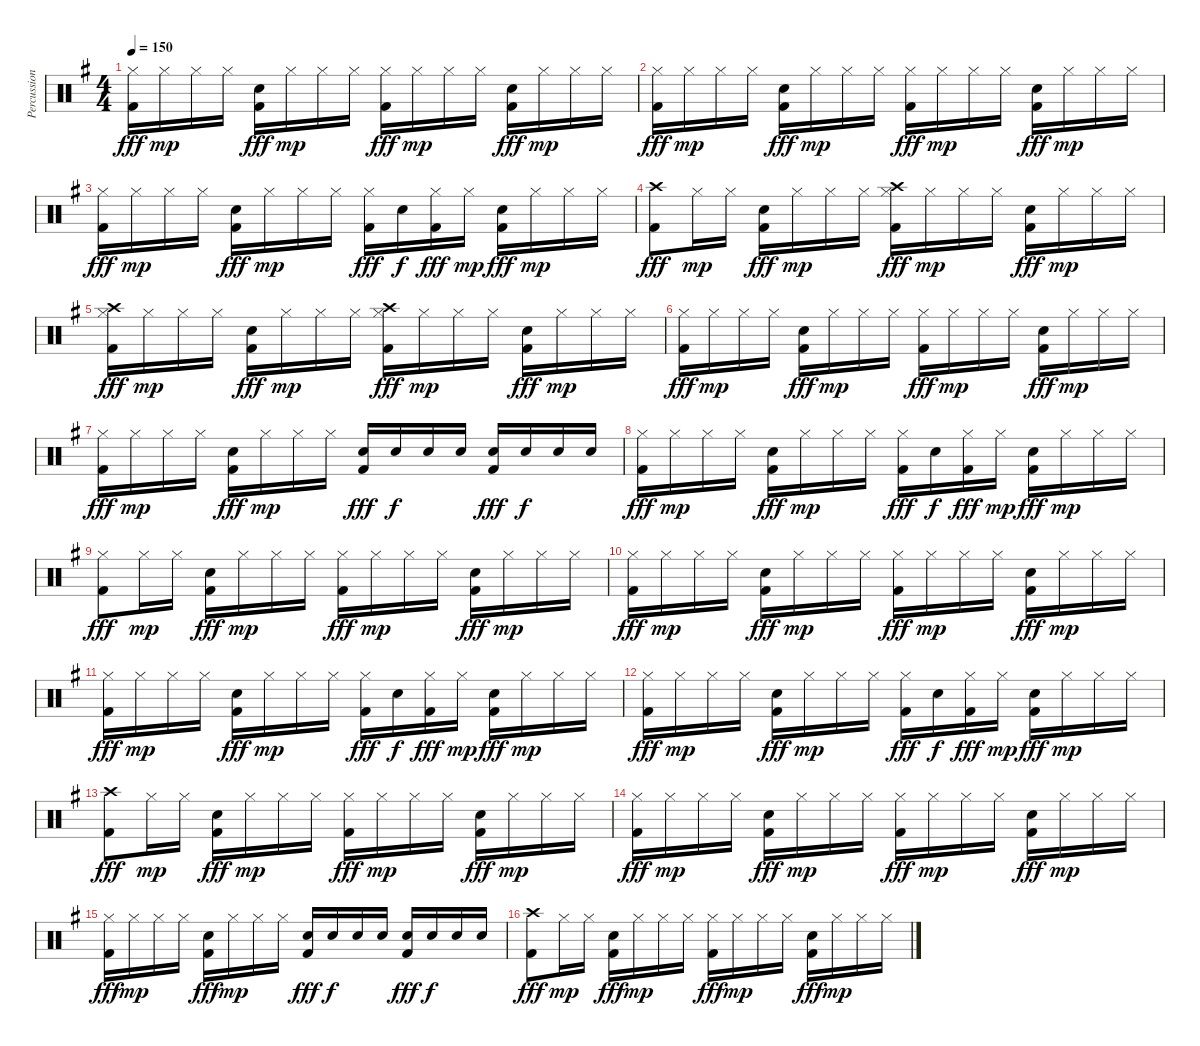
\track ("Percussion" "Percussion") {instrument percussion}
\staff {score}
\articulation defaults
\ts (4 4)
\tempo 150
\clef neutral
\ks eminor
("Hi-Hat (closed)" "Kick (hit) 2").16{dy fff} "Hi-Hat (closed)".16{dy mp} "Hi-Hat (closed)".16 "Hi-Hat (closed)".16 ("Electric Snare (hit)" "Kick (hit) 2").16{dy fff} "Hi-Hat (closed)".16{dy mp} "Hi-Hat (closed)".16 "Hi-Hat (closed)".16 ("Hi-Hat (closed)" "Kick (hit) 2").16{dy fff} "Hi-Hat (closed)".16{dy mp} "Hi-Hat (closed)".16 "Hi-Hat (closed)".16 ("Electric Snare (hit)" "Kick (hit) 2").16{dy fff} "Hi-Hat (closed)".16{dy mp} "Hi-Hat (closed)".16 "Hi-Hat (closed)".16 |
("Hi-Hat (closed)" "Kick (hit) 2").16{dy fff} "Hi-Hat (closed)".16{dy mp} "Hi-Hat (closed)".16 "Hi-Hat (closed)".16 ("Electric Snare (hit)" "Kick (hit) 2").16{dy fff} "Hi-Hat (closed)".16{dy mp} "Hi-Hat (closed)".16 "Hi-Hat (closed)".16 ("Hi-Hat (closed)" "Kick (hit) 2").16{dy fff} "Hi-Hat (closed)".16{dy mp} "Hi-Hat (closed)".16 "Hi-Hat (closed)".16 ("Electric Snare (hit)" "Kick (hit) 2").16{dy fff} "Hi-Hat (closed)".16{dy mp} "Hi-Hat (closed)".16 "Hi-Hat (closed)".16 |
("Hi-Hat (closed)" "Kick (hit) 2").16{dy fff} "Hi-Hat (closed)".16{dy mp} "Hi-Hat (closed)".16 "Hi-Hat (closed)".16 ("Electric Snare (hit)" "Kick (hit) 2").16{dy fff} "Hi-Hat (closed)".16{dy mp} "Hi-Hat (closed)".16 "Hi-Hat (closed)".16 ("Hi-Hat (closed)" "Kick (hit) 2").16{dy fff} "Electric Snare (hit)".16{dy f} ("Hi-Hat (closed)" "Kick (hit) 2").16{dy fff} "Hi-Hat (closed)".16{dy mp} ("Electric Snare (hit)" "Kick (hit) 2").16{dy fff} "Hi-Hat (closed)".16{dy mp} "Hi-Hat (closed)".16 "Hi-Hat (closed)".16 |
("Crash high (hit)" "Kick (hit) 2").8{dy fff} "Hi-Hat (closed)".16{dy mp} "Hi-Hat (closed)".16 ("Electric Snare (hit)" "Kick (hit) 2").16{dy fff} "Hi-Hat (closed)".16{dy mp} "Hi-Hat (closed)".16 "Hi-Hat (closed)".16 ("Hi-Hat (closed)" "Crash high (hit)" "Kick (hit) 2").16{dy fff} "Hi-Hat (closed)".16{dy mp} "Hi-Hat (closed)".16 "Hi-Hat (closed)".16 ("Electric Snare (hit)" "Kick (hit) 2").16{dy fff} "Hi-Hat (closed)".16{dy mp} "Hi-Hat (closed)".16 "Hi-Hat (closed)".16 |
("Hi-Hat (closed)" "Crash high (hit)" "Kick (hit) 2").16{dy fff} "Hi-Hat (closed)".16{dy mp} "Hi-Hat (closed)".16 "Hi-Hat (closed)".16 ("Electric Snare (hit)" "Kick (hit) 2").16{dy fff} "Hi-Hat (closed)".16{dy mp} "Hi-Hat (closed)".16 "Hi-Hat (closed)".16 ("Hi-Hat (closed)" "Crash high (hit)" "Kick (hit) 2").16{dy fff} "Hi-Hat (closed)".16{dy mp} "Hi-Hat (closed)".16 "Hi-Hat (closed)".16 ("Electric Snare (hit)" "Kick (hit) 2").16{dy fff} "Hi-Hat (closed)".16{dy mp} "Hi-Hat (closed)".16 "Hi-Hat (closed)".16 |
("Hi-Hat (closed)" "Kick (hit) 2").16{dy fff} "Hi-Hat (closed)".16{dy mp} "Hi-Hat (closed)".16 "Hi-Hat (closed)".16 ("Electric Snare (hit)" "Kick (hit) 2").16{dy fff} "Hi-Hat (closed)".16{dy mp} "Hi-Hat (closed)".16 "Hi-Hat (closed)".16 ("Hi-Hat (closed)" "Kick (hit) 2").16{dy fff} "Hi-Hat (closed)".16{dy mp} "Hi-Hat (closed)".16 "Hi-Hat (closed)".16 ("Electric Snare (hit)" "Kick (hit) 2").16{dy fff} "Hi-Hat (closed)".16{dy mp} "Hi-Hat (closed)".16 "Hi-Hat (closed)".16 |
("Hi-Hat (closed)" "Kick (hit) 2").16{dy fff} "Hi-Hat (closed)".16{dy mp} "Hi-Hat (closed)".16 "Hi-Hat (closed)".16 ("Electric Snare (hit)" "Kick (hit) 2").16{dy fff} "Hi-Hat (closed)".16{dy mp} "Hi-Hat (closed)".16 "Hi-Hat (closed)".16 ("Electric Snare (hit)" "Kick (hit) 2").16{dy fff} "Electric Snare (hit)".16{dy f} "Electric Snare (hit)".16 "Electric Snare (hit)".16 ("Electric Snare (hit)" "Kick (hit) 2").16{dy fff} "Electric Snare (hit)".16{dy f} "Electric Snare (hit)".16 "Electric Snare (hit)".16 |
("Hi-Hat (closed)" "Kick (hit) 2").16{dy fff} "Hi-Hat (closed)".16{dy mp} "Hi-Hat (closed)".16 "Hi-Hat (closed)".16 ("Electric Snare (hit)" "Kick (hit) 2").16{dy fff} "Hi-Hat (closed)".16{dy mp} "Hi-Hat (closed)".16 "Hi-Hat (closed)".16 ("Hi-Hat (closed)" "Kick (hit) 2").16{dy fff} "Electric Snare (hit)".16{dy f} ("Hi-Hat (closed)" "Kick (hit) 2").16{dy fff} "Hi-Hat (closed)".16{dy mp} ("Electric Snare (hit)" "Kick (hit) 2").16{dy fff} "Hi-Hat (closed)".16{dy mp} "Hi-Hat (closed)".16 "Hi-Hat (closed)".16 |
("Hi-Hat (closed)" "Kick (hit) 2").8{dy fff} "Hi-Hat (closed)".16{dy mp} "Hi-Hat (closed)".16 ("Electric Snare (hit)" "Kick (hit) 2").16{dy fff} "Hi-Hat (closed)".16{dy mp} "Hi-Hat (closed)".16 "Hi-Hat (closed)".16 ("Hi-Hat (closed)" "Kick (hit) 2").16{dy fff} "Hi-Hat (closed)".16{dy mp} "Hi-Hat (closed)".16 "Hi-Hat (closed)".16 ("Electric Snare (hit)" "Kick (hit) 2").16{dy fff} "Hi-Hat (closed)".16{dy mp} "Hi-Hat (closed)".16 "Hi-Hat (closed)".16 |
("Hi-Hat (closed)" "Kick (hit) 2").16{dy fff} "Hi-Hat (closed)".16{dy mp} "Hi-Hat (closed)".16 "Hi-Hat (closed)".16 ("Electric Snare (hit)" "Kick (hit) 2").16{dy fff} "Hi-Hat (closed)".16{dy mp} "Hi-Hat (closed)".16 "Hi-Hat (closed)".16 ("Hi-Hat (closed)" "Kick (hit) 2").16{dy fff} "Hi-Hat (closed)".16{dy mp} "Hi-Hat (closed)".16 "Hi-Hat (closed)".16 ("Electric Snare (hit)" "Kick (hit) 2").16{dy fff} "Hi-Hat (closed)".16{dy mp} "Hi-Hat (closed)".16 "Hi-Hat (closed)".16 |
("Hi-Hat (closed)" "Kick (hit) 2").16{dy fff} "Hi-Hat (closed)".16{dy mp} "Hi-Hat (closed)".16 "Hi-Hat (closed)".16 ("Electric Snare (hit)" "Kick (hit) 2").16{dy fff} "Hi-Hat (closed)".16{dy mp} "Hi-Hat (closed)".16 "Hi-Hat (closed)".16 ("Hi-Hat (closed)" "Kick (hit) 2").16{dy fff} "Electric Snare (hit)".16{dy f} ("Hi-Hat (closed)" "Kick (hit) 2").16{dy fff} "Hi-Hat (closed)".16{dy mp} ("Electric Snare (hit)" "Kick (hit) 2").16{dy fff} "Hi-Hat (closed)".16{dy mp} "Hi-Hat (closed)".16 "Hi-Hat (closed)".16 |
("Hi-Hat (closed)" "Kick (hit) 2").16{dy fff} "Hi-Hat (closed)".16{dy mp} "Hi-Hat (closed)".16 "Hi-Hat (closed)".16 ("Electric Snare (hit)" "Kick (hit) 2").16{dy fff} "Hi-Hat (closed)".16{dy mp} "Hi-Hat (closed)".16 "Hi-Hat (closed)".16 ("Hi-Hat (closed)" "Kick (hit) 2").16{dy fff} "Electric Snare (hit)".16{dy f} ("Hi-Hat (closed)" "Kick (hit) 2").16{dy fff} "Hi-Hat (closed)".16{dy mp} ("Electric Snare (hit)" "Kick (hit) 2").16{dy fff} "Hi-Hat (closed)".16{dy mp} "Hi-Hat (closed)".16 "Hi-Hat (closed)".16 |
("Crash high (hit)" "Kick (hit) 2").8{dy fff} "Hi-Hat (closed)".16{dy mp} "Hi-Hat (closed)".16 ("Electric Snare (hit)" "Kick (hit) 2").16{dy fff} "Hi-Hat (closed)".16{dy mp} "Hi-Hat (closed)".16 "Hi-Hat (closed)".16 ("Hi-Hat (closed)" "Kick (hit) 2").16{dy fff} "Hi-Hat (closed)".16{dy mp} "Hi-Hat (closed)".16 "Hi-Hat (closed)".16 ("Electric Snare (hit)" "Kick (hit) 2").16{dy fff} "Hi-Hat (closed)".16{dy mp} "Hi-Hat (closed)".16 "Hi-Hat (closed)".16 |
("Hi-Hat (closed)" "Kick (hit) 2").16{dy fff} "Hi-Hat (closed)".16{dy mp} "Hi-Hat (closed)".16 "Hi-Hat (closed)".16 ("Electric Snare (hit)" "Kick (hit) 2").16{dy fff} "Hi-Hat (closed)".16{dy mp} "Hi-Hat (closed)".16 "Hi-Hat (closed)".16 ("Hi-Hat (closed)" "Kick (hit) 2").16{dy fff} "Hi-Hat (closed)".16{dy mp} "Hi-Hat (closed)".16 "Hi-Hat (closed)".16 ("Electric Snare (hit)" "Kick (hit) 2").16{dy fff} "Hi-Hat (closed)".16{dy mp} "Hi-Hat (closed)".16 "Hi-Hat (closed)".16 |
("Hi-Hat (closed)" "Kick (hit) 2").16{dy fff} "Hi-Hat (closed)".16{dy mp} "Hi-Hat (closed)".16 "Hi-Hat (closed)".16 ("Electric Snare (hit)" "Kick (hit) 2").16{dy fff} "Hi-Hat (closed)".16{dy mp} "Hi-Hat (closed)".16 "Hi-Hat (closed)".16 ("Electric Snare (hit)" "Kick (hit) 2").16{dy fff} "Electric Snare (hit)".16{dy f} "Electric Snare (hit)".16 "Electric Snare (hit)".16 ("Electric Snare (hit)" "Kick (hit) 2").16{dy fff} "Electric Snare (hit)".16{dy f} "Electric Snare (hit)".16 "Electric Snare (hit)".16 |
("Crash high (hit)" "Kick (hit) 2").8{dy fff} "Hi-Hat (closed)".16{dy mp} "Hi-Hat (closed)".16 ("Electric Snare (hit)" "Kick (hit) 2").16{dy fff} "Hi-Hat (closed)".16{dy mp} "Hi-Hat (closed)".16 "Hi-Hat (closed)".16 ("Hi-Hat (closed)" "Kick (hit) 2").16{dy fff} "Hi-Hat (closed)".16{dy mp} "Hi-Hat (closed)".16 "Hi-Hat (closed)".16 ("Electric Snare (hit)" "Kick (hit) 2").16{dy fff} "Hi-Hat (closed)".16{dy mp} "Hi-Hat (closed)".16 "Hi-Hat (closed)".16
